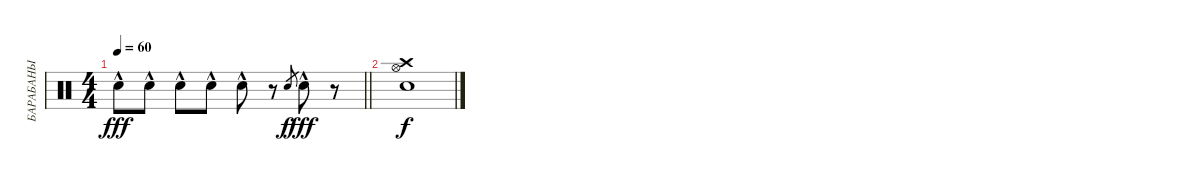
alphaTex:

\track ("БАРАБАНЫ" "БАРАБАНЫ") {instrument percussion}
\staff {score}
\articulation defaults
\ts (4 4)
\tempo 60
\clef neutral
\barLineRight lightlight
\ks c "Snare (hit) 2"{hac}.8{dy fff} "Snare (hit) 2"{hac}.8 "Snare (hit) 2"{hac}.8 "Snare (hit) 2"{hac}.8 "Snare (hit) 2"{hac}.8
r.8 "Snare (hit) 2".8{gr dy f} "Snare (hit) 2"{hac}.8{dy fff} r.8 |
("Crash high (hit)" "Hi-Hat (open)" "Snare (hit) 2").1{dy f}
